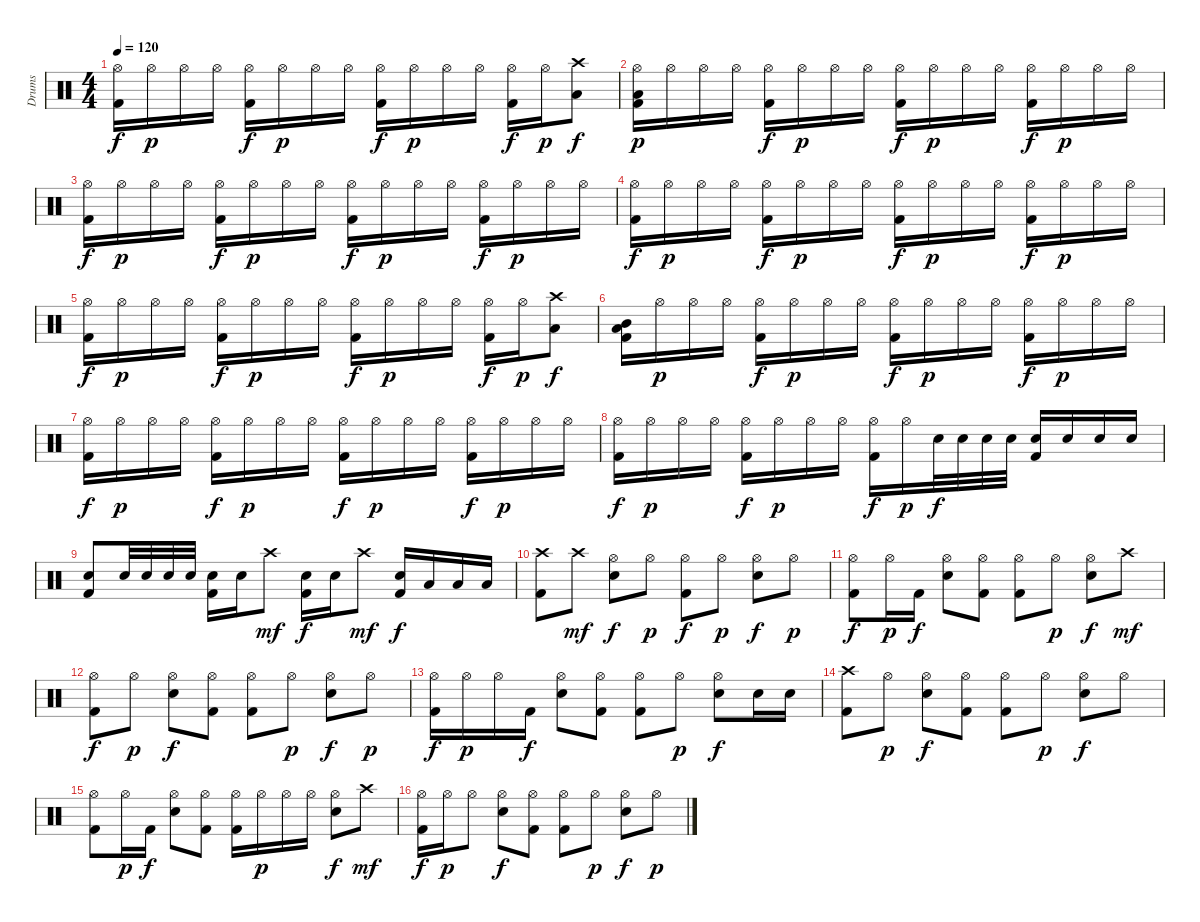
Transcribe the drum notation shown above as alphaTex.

\track ("Drums" "Drums") {instrument percussion}
\staff {score}
\articulation defaults
\ts (4 4)
\tempo 120
\clef neutral
\ks c
("Hi-Hat (open)" "Kick (hit) 2").16{dy f} "Hi-Hat (open)".16{dy p} "Hi-Hat (open)".16 "Hi-Hat (open)".16 ("Hi-Hat (open)" "Kick (hit) 2").16{dy f} "Hi-Hat (open)".16{dy p} "Hi-Hat (open)".16 "Hi-Hat (open)".16 ("Hi-Hat (open)" "Kick (hit) 2").16{dy f} "Hi-Hat (open)".16{dy p} "Hi-Hat (open)".16 "Hi-Hat (open)".16 ("Hi-Hat (open)" "Kick (hit) 2").16{dy f} "Hi-Hat (open)".16{dy p} ("Crash high (hit)" "Low Tom (hit)").8{dy f} |
("Hi-Hat (open)" "Low Tom (hit)" "Kick (hit) 2").16{dy p} "Hi-Hat (open)".16 "Hi-Hat (open)".16 "Hi-Hat (open)".16 ("Hi-Hat (open)" "Kick (hit) 2").16{dy f} "Hi-Hat (open)".16{dy p} "Hi-Hat (open)".16 "Hi-Hat (open)".16 ("Hi-Hat (open)" "Kick (hit) 2").16{dy f} "Hi-Hat (open)".16{dy p} "Hi-Hat (open)".16 "Hi-Hat (open)".16 ("Hi-Hat (open)" "Kick (hit) 2").16{dy f} "Hi-Hat (open)".16{dy p} "Hi-Hat (open)".16 "Hi-Hat (open)".16 |
("Hi-Hat (open)" "Kick (hit) 2").16{dy f} "Hi-Hat (open)".16{dy p} "Hi-Hat (open)".16 "Hi-Hat (open)".16 ("Hi-Hat (open)" "Kick (hit) 2").16{dy f} "Hi-Hat (open)".16{dy p} "Hi-Hat (open)".16 "Hi-Hat (open)".16 ("Hi-Hat (open)" "Kick (hit) 2").16{dy f} "Hi-Hat (open)".16{dy p} "Hi-Hat (open)".16 "Hi-Hat (open)".16 ("Hi-Hat (open)" "Kick (hit) 2").16{dy f} "Hi-Hat (open)".16{dy p} "Hi-Hat (open)".16 "Hi-Hat (open)".16 |
("Hi-Hat (open)" "Kick (hit) 2").16{dy f} "Hi-Hat (open)".16{dy p} "Hi-Hat (open)".16 "Hi-Hat (open)".16 ("Hi-Hat (open)" "Kick (hit) 2").16{dy f} "Hi-Hat (open)".16{dy p} "Hi-Hat (open)".16 "Hi-Hat (open)".16 ("Hi-Hat (open)" "Kick (hit) 2").16{dy f} "Hi-Hat (open)".16{dy p} "Hi-Hat (open)".16 "Hi-Hat (open)".16 ("Hi-Hat (open)" "Kick (hit) 2").16{dy f} "Hi-Hat (open)".16{dy p} "Hi-Hat (open)".16 "Hi-Hat (open)".16 |
("Hi-Hat (open)" "Kick (hit) 2").16{dy f} "Hi-Hat (open)".16{dy p} "Hi-Hat (open)".16 "Hi-Hat (open)".16 ("Hi-Hat (open)" "Kick (hit) 2").16{dy f} "Hi-Hat (open)".16{dy p} "Hi-Hat (open)".16 "Hi-Hat (open)".16 ("Hi-Hat (open)" "Kick (hit) 2").16{dy f} "Hi-Hat (open)".16{dy p} "Hi-Hat (open)".16 "Hi-Hat (open)".16 ("Hi-Hat (open)" "Kick (hit) 2").16{dy f} "Hi-Hat (open)".16{dy p} ("Crash high (hit)" "Low Tom (hit)").8{dy f} |
("Mid Tom (hit)" "Low Tom (hit)" "Kick (hit) 2").16 "Hi-Hat (open)".16{dy p} "Hi-Hat (open)".16 "Hi-Hat (open)".16 ("Hi-Hat (open)" "Kick (hit) 2").16{dy f} "Hi-Hat (open)".16{dy p} "Hi-Hat (open)".16 "Hi-Hat (open)".16 ("Hi-Hat (open)" "Kick (hit) 2").16{dy f} "Hi-Hat (open)".16{dy p} "Hi-Hat (open)".16 "Hi-Hat (open)".16 ("Hi-Hat (open)" "Kick (hit) 2").16{dy f} "Hi-Hat (open)".16{dy p} "Hi-Hat (open)".16 "Hi-Hat (open)".16 |
("Hi-Hat (open)" "Kick (hit) 2").16{dy f} "Hi-Hat (open)".16{dy p} "Hi-Hat (open)".16 "Hi-Hat (open)".16 ("Hi-Hat (open)" "Kick (hit) 2").16{dy f} "Hi-Hat (open)".16{dy p} "Hi-Hat (open)".16 "Hi-Hat (open)".16 ("Hi-Hat (open)" "Kick (hit) 2").16{dy f} "Hi-Hat (open)".16{dy p} "Hi-Hat (open)".16 "Hi-Hat (open)".16 ("Hi-Hat (open)" "Kick (hit) 2").16{dy f} "Hi-Hat (open)".16{dy p} "Hi-Hat (open)".16 "Hi-Hat (open)".16 |
("Hi-Hat (open)" "Kick (hit) 2").16{dy f} "Hi-Hat (open)".16{dy p} "Hi-Hat (open)".16 "Hi-Hat (open)".16 ("Hi-Hat (open)" "Kick (hit) 2").16{dy f} "Hi-Hat (open)".16{dy p} "Hi-Hat (open)".16 "Hi-Hat (open)".16 ("Hi-Hat (open)" "Kick (hit) 2").16{dy f} "Hi-Hat (open)".16{dy p} "Electric Snare (hit)".32{dy f} "Electric Snare (hit)".32 "Electric Snare (hit)".32 "Electric Snare (hit)".32 ("Electric Snare (hit)" "Kick (hit) 2").16 "Electric Snare (hit)".16 "Electric Snare (hit)".16 "Electric Snare (hit)".16 |
("Electric Snare (hit)" "Kick (hit) 2").8 "Electric Snare (hit)".32 "Electric Snare (hit)".32 "Electric Snare (hit)".32 "Electric Snare (hit)".32 ("Electric Snare (hit)" "Kick (hit) 2").16 "Electric Snare (hit)".16 "Crash high (hit)".8{dy mf} ("Electric Snare (hit)" "Kick (hit) 2").16{dy f} "Electric Snare (hit)".16 "Crash high (hit)".8{dy mf} ("Electric Snare (hit)" "Kick (hit) 2").16{dy f} "Low Tom (hit)".16 "Low Tom (hit)".16 "Low Floor Tom (hit)".16 |
("Crash high (hit)" "Kick (hit) 2").8 "Crash high (hit)".8{dy mf} ("Hi-Hat (open)" "Electric Snare (hit)").8{dy f} "Hi-Hat (open)".8{dy p} ("Hi-Hat (open)" "Kick (hit) 2").8{dy f} "Hi-Hat (open)".8{dy p} ("Hi-Hat (open)" "Electric Snare (hit)").8{dy f} "Hi-Hat (open)".8{dy p} |
("Hi-Hat (open)" "Kick (hit) 2").8{dy f} "Hi-Hat (open)".16{dy p} "Kick (hit) 2".16{dy f} ("Hi-Hat (open)" "Electric Snare (hit)").8 ("Hi-Hat (open)" "Kick (hit) 2").8 ("Hi-Hat (open)" "Kick (hit) 2").8 "Hi-Hat (open)".8{dy p} ("Hi-Hat (open)" "Electric Snare (hit)").8{dy f} "Crash high (hit)".8{dy mf} |
("Hi-Hat (open)" "Kick (hit) 2").8{dy f} "Hi-Hat (open)".8{dy p} ("Hi-Hat (open)" "Electric Snare (hit)").8{dy f} ("Hi-Hat (open)" "Kick (hit) 2").8 ("Hi-Hat (open)" "Kick (hit) 2").8 "Hi-Hat (open)".8{dy p} ("Hi-Hat (open)" "Electric Snare (hit)").8{dy f} "Hi-Hat (open)".8{dy p} |
("Hi-Hat (open)" "Kick (hit) 2").16{dy f} "Hi-Hat (open)".16{dy p} "Hi-Hat (open)".16 "Kick (hit) 2".16{dy f} ("Hi-Hat (open)" "Electric Snare (hit)").8 ("Hi-Hat (open)" "Kick (hit) 2").8 ("Hi-Hat (open)" "Kick (hit) 2").8 "Hi-Hat (open)".8{dy p} ("Hi-Hat (open)" "Electric Snare (hit)").8{dy f} "Electric Snare (hit)".16 "Electric Snare (hit)".16 |
("Crash high (hit)" "Kick (hit) 2").8 "Hi-Hat (open)".8{dy p} ("Hi-Hat (open)" "Electric Snare (hit)").8{dy f} ("Hi-Hat (open)" "Kick (hit) 2").8 ("Hi-Hat (open)" "Kick (hit) 2").8 "Hi-Hat (open)".8{dy p} ("Hi-Hat (open)" "Electric Snare (hit)").8{dy f} "Hi-Hat (open)".8 |
("Hi-Hat (open)" "Kick (hit) 2").8 "Hi-Hat (open)".16{dy p} "Kick (hit) 2".16{dy f} ("Hi-Hat (open)" "Electric Snare (hit)").8 ("Hi-Hat (open)" "Kick (hit) 2").8 ("Hi-Hat (open)" "Kick (hit) 2").16 "Hi-Hat (open)".16{dy p} "Hi-Hat (open)".16 "Hi-Hat (open)".16 ("Hi-Hat (open)" "Electric Snare (hit)").8{dy f} "Crash high (hit)".8{dy mf} |
("Hi-Hat (open)" "Kick (hit) 2").16{dy f} "Hi-Hat (open)".16{dy p} "Hi-Hat (open)".8 ("Hi-Hat (open)" "Electric Snare (hit)").8{dy f} ("Hi-Hat (open)" "Kick (hit) 2").8 ("Hi-Hat (open)" "Kick (hit) 2").8 "Hi-Hat (open)".8{dy p} ("Hi-Hat (open)" "Electric Snare (hit)").8{dy f} "Hi-Hat (open)".8{dy p}
